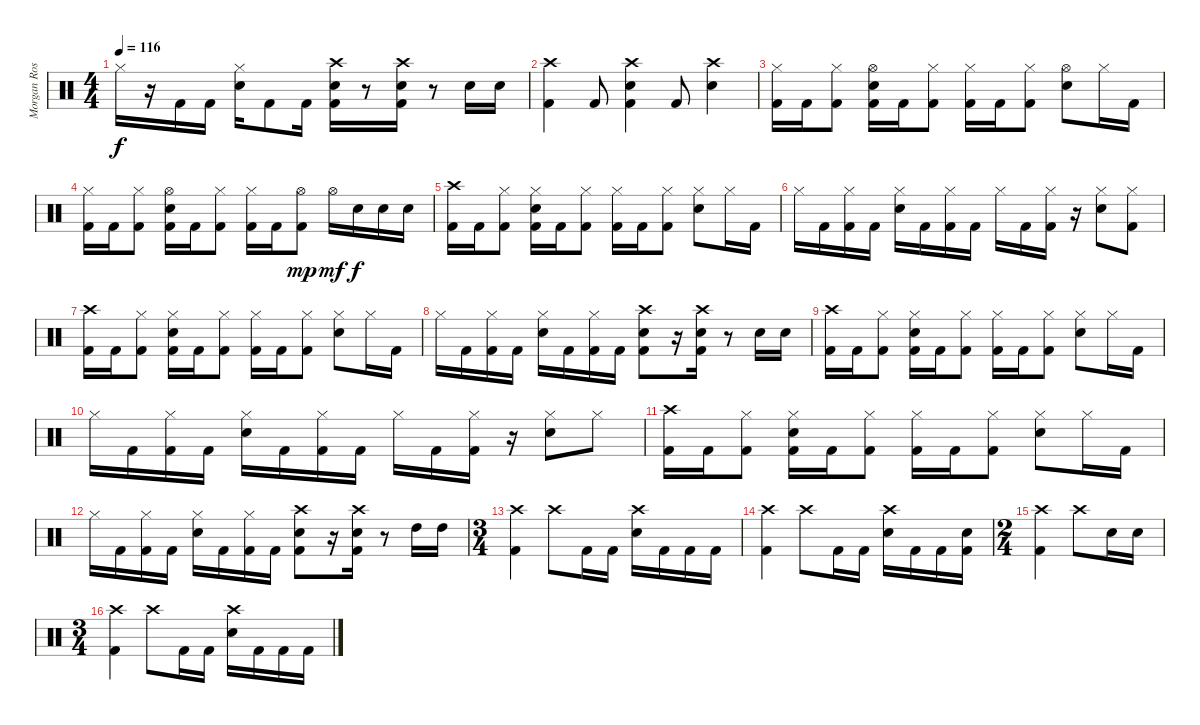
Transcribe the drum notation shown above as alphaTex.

\track ("Morgan Rose - Drums" "Morgan Ros") {instrument percussion}
\staff {score}
\articulation defaults
\ts (4 4)
\tempo 116
\clef neutral
\ks c "Hi-Hat (closed)".16{dy f}
r.16 "Kick (hit) 2".16 "Kick (hit) 2".16 ("Hi-Hat (closed)" "Electric Snare (hit)").16 "Kick (hit) 2".8 "Kick (hit) 2".16 ("Crash high (hit)" "Electric Snare (hit)" "Kick (hit) 2").16 r.8 ("Crash high (hit)" "Electric Snare (hit)" "Kick (hit) 2").16 r.8 "Electric Snare (hit)".16 "Electric Snare (hit)".16 |
("Crash high (hit)" "Kick (hit) 2").4 "Kick (hit) 2".8 ("Crash high (hit)" "Electric Snare (hit)" "Kick (hit) 2").4 "Kick (hit) 2".8 ("Crash high (hit)" "Electric Snare (hit)").4 |
("Hi-Hat (closed)" "Kick (hit) 2").16 "Kick (hit) 2".16 ("Hi-Hat (closed)" "Kick (hit) 2").8 ("Hi-Hat (open)" "Electric Snare (hit)" "Kick (hit) 2").16 "Kick (hit) 2".16 ("Hi-Hat (closed)" "Kick (hit) 2").8 ("Hi-Hat (closed)" "Kick (hit) 2").16 "Kick (hit) 2".16 ("Hi-Hat (closed)" "Kick (hit) 2").8 ("Hi-Hat (open)" "Electric Snare (hit)").8 "Hi-Hat (closed)".16 "Kick (hit) 2".16 |
("Hi-Hat (closed)" "Kick (hit) 2").16 "Kick (hit) 2".16 ("Hi-Hat (closed)" "Kick (hit) 2").8 ("Hi-Hat (open)" "Electric Snare (hit)" "Kick (hit) 2").16 "Kick (hit) 2".16 ("Hi-Hat (closed)" "Kick (hit) 2").8 ("Hi-Hat (closed)" "Kick (hit) 2").16 "Kick (hit) 2".16 ("Hi-Hat (open)" "Kick (hit) 2").8{dy mp} "Hi-Hat (open)".16{dy mf} "Electric Snare (hit)".16{dy f} "Electric Snare (hit)".16 "Electric Snare (hit)".16 |
("Crash high (hit)" "Kick (hit) 2").16 "Kick (hit) 2".16 ("Hi-Hat (closed)" "Kick (hit) 2").8 ("Hi-Hat (closed)" "Electric Snare (hit)" "Kick (hit) 2").16 "Kick (hit) 2".16 ("Hi-Hat (closed)" "Kick (hit) 2").8 ("Hi-Hat (closed)" "Kick (hit) 2").16 "Kick (hit) 2".16 ("Hi-Hat (closed)" "Kick (hit) 2").8 ("Hi-Hat (closed)" "Electric Snare (hit)").8 "Hi-Hat (closed)".16 "Kick (hit) 2".16 |
"Hi-Hat (closed)".16 "Kick (hit) 2".16 ("Hi-Hat (closed)" "Kick (hit) 2").16 "Kick (hit) 2".16 ("Hi-Hat (closed)" "Electric Snare (hit)").16 "Kick (hit) 2".16 ("Hi-Hat (closed)" "Kick (hit) 2").16 "Kick (hit) 2".16 "Hi-Hat (closed)".16 "Kick (hit) 2".16 ("Hi-Hat (closed)" "Kick (hit) 2").16 r.16 ("Hi-Hat (closed)" "Electric Snare (hit)").8 ("Hi-Hat (closed)" "Kick (hit) 2").8 |
("Crash high (hit)" "Kick (hit) 2").16 "Kick (hit) 2".16 ("Hi-Hat (closed)" "Kick (hit) 2").8 ("Hi-Hat (closed)" "Electric Snare (hit)" "Kick (hit) 2").16 "Kick (hit) 2".16 ("Hi-Hat (closed)" "Kick (hit) 2").8 ("Hi-Hat (closed)" "Kick (hit) 2").16 "Kick (hit) 2".16 ("Hi-Hat (closed)" "Kick (hit) 2").8 ("Hi-Hat (closed)" "Electric Snare (hit)").8 "Hi-Hat (closed)".16 "Kick (hit) 2".16 |
"Hi-Hat (closed)".16 "Kick (hit) 2".16 ("Hi-Hat (closed)" "Kick (hit) 2").16 "Kick (hit) 2".16 ("Hi-Hat (closed)" "Electric Snare (hit)").16 "Kick (hit) 2".16 ("Hi-Hat (closed)" "Kick (hit) 2").16 "Kick (hit) 2".16 ("Crash high (hit)" "Electric Snare (hit)" "Kick (hit) 2").8 r.16 ("Crash high (hit)" "Electric Snare (hit)" "Kick (hit) 2").16 r.8 "Electric Snare (hit)".16 "Electric Snare (hit)".16 |
("Crash high (hit)" "Kick (hit) 2").16 "Kick (hit) 2".16 ("Hi-Hat (closed)" "Kick (hit) 2").8 ("Hi-Hat (closed)" "Electric Snare (hit)" "Kick (hit) 2").16 "Kick (hit) 2".16 ("Hi-Hat (closed)" "Kick (hit) 2").8 ("Hi-Hat (closed)" "Kick (hit) 2").16 "Kick (hit) 2".16 ("Hi-Hat (closed)" "Kick (hit) 2").8 ("Hi-Hat (closed)" "Electric Snare (hit)").8 "Hi-Hat (closed)".16 "Kick (hit) 2".16 |
"Hi-Hat (closed)".16 "Kick (hit) 2".16 ("Hi-Hat (closed)" "Kick (hit) 2").16 "Kick (hit) 2".16 ("Hi-Hat (closed)" "Electric Snare (hit)").16 "Kick (hit) 2".16 ("Hi-Hat (closed)" "Kick (hit) 2").16 "Kick (hit) 2".16 "Hi-Hat (closed)".16 "Kick (hit) 2".16 ("Hi-Hat (closed)" "Kick (hit) 2").16 r.16 ("Hi-Hat (closed)" "Electric Snare (hit)").8 "Hi-Hat (closed)".8 |
("Crash high (hit)" "Kick (hit) 2").16 "Kick (hit) 2".16 ("Hi-Hat (closed)" "Kick (hit) 2").8 ("Hi-Hat (closed)" "Electric Snare (hit)" "Kick (hit) 2").16 "Kick (hit) 2".16 ("Hi-Hat (closed)" "Kick (hit) 2").8 ("Hi-Hat (closed)" "Kick (hit) 2").16 "Kick (hit) 2".16 ("Hi-Hat (closed)" "Kick (hit) 2").8 ("Hi-Hat (closed)" "Electric Snare (hit)").8 "Hi-Hat (closed)".16 "Kick (hit) 2".16 |
"Hi-Hat (closed)".16 "Kick (hit) 2".16 ("Hi-Hat (closed)" "Kick (hit) 2").16 "Kick (hit) 2".16 ("Hi-Hat (closed)" "Electric Snare (hit)").16 "Kick (hit) 2".16 ("Hi-Hat (closed)" "Kick (hit) 2").16 "Kick (hit) 2".16 ("Crash high (hit)" "Electric Snare (hit)" "Kick (hit) 2").8 r.16 ("Crash high (hit)" "Electric Snare (hit)" "Kick (hit) 2").16 r.8 "High Tom (hit)".16 "High Tom (hit)".16 |
\ts (3 4)
("Crash high (hit)" "Kick (hit) 2").4 "Crash high (hit)".8 "Kick (hit) 2".16 "Kick (hit) 2".16 ("Crash high (hit)" "Electric Snare (hit)").16 "Kick (hit) 2".16 "Kick (hit) 2".16 "Kick (hit) 2".16 |
("Crash high (hit)" "Kick (hit) 2").4 "Crash high (hit)".8 "Kick (hit) 2".16 "Kick (hit) 2".16 ("Crash high (hit)" "Electric Snare (hit)").16 "Kick (hit) 2".16 "Kick (hit) 2".16 ("Electric Snare (hit)" "Kick (hit) 2").16 |
\ts (2 4)
("Crash high (hit)" "Kick (hit) 2").4 "Crash high (hit)".8 "Electric Snare (hit)".16 "Electric Snare (hit)".16 |
\ts (3 4)
("Crash high (hit)" "Kick (hit) 2").4 "Crash high (hit)".8 "Kick (hit) 2".16 "Kick (hit) 2".16 ("Crash high (hit)" "Electric Snare (hit)").16 "Kick (hit) 2".16 "Kick (hit) 2".16 "Kick (hit) 2".16
